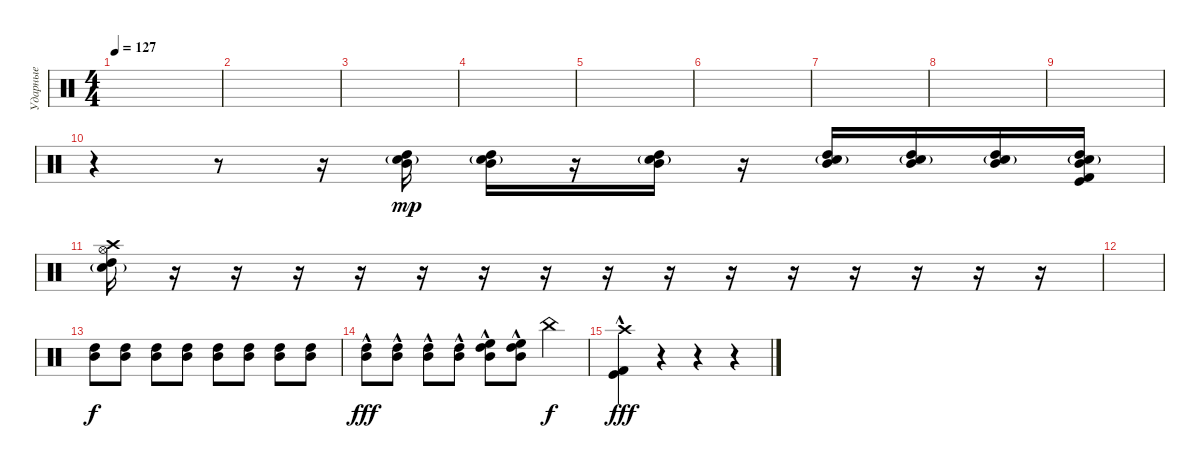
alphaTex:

\track ("Ударные" "Ударные") {instrument percussion}
\staff {score}
\articulation defaults
\ts (4 4)
\tempo 127
\clef neutral
\ks c
|
|
|
|
|
|
|
|
|
r.4 r.8 r.16 ("High Tom (hit)" "Snare (hit) 2"{g} "Mid Tom (hit)").16{dy mp} ("High Tom (hit)" "Snare (hit) 2"{g} "Mid Tom (hit)").16 r.16 ("High Tom (hit)" "Snare (hit) 2"{g} "Mid Tom (hit)").16 r.16 ("High Tom (hit)" "Snare (hit) 2"{g} "Mid Tom (hit)").16 ("High Tom (hit)" "Snare (hit) 2"{g} "Mid Tom (hit)").16 ("High Tom (hit)" "Snare (hit) 2"{g} "Mid Tom (hit)").16 ("High Tom (hit)" "Snare (hit) 2"{g} "Kick (hit) 2" "Kick (hit)" "Mid Tom (hit)").16 |
("High Tom (hit)" "Snare (hit) 2"{g} "Hi-Hat (open)" "Crash high (hit)").16 r.16 r.16 r.16 r.16 r.16 r.16 r.16 r.16 r.16 r.16 r.16 r.16 r.16 r.16 r.16 |
|
("Mid Tom (hit)" "High Tom (hit)").8{dy f} ("Mid Tom (hit)" "High Tom (hit)").8 ("Mid Tom (hit)" "High Tom (hit)").8 ("Mid Tom (hit)" "High Tom (hit)").8 ("Mid Tom (hit)" "High Tom (hit)").8 ("Mid Tom (hit)" "High Tom (hit)").8 ("Mid Tom (hit)" "High Tom (hit)").8 ("Mid Tom (hit)" "High Tom (hit)").8 |
("Mid Tom (hit)"{hac} "High Tom (hit)"{hac}).8{dy fff} ("Mid Tom (hit)"{hac} "High Tom (hit)"{hac}).8 ("Mid Tom (hit)"{hac} "High Tom (hit)"{hac}).8 ("Mid Tom (hit)"{hac} "High Tom (hit)"{hac}).8 ("Mid Tom (hit)"{hac} "High Tom (hit)"{hac} "High Floor Tom (hit)"{hac}).8 ("Mid Tom (hit)"{hac} "High Tom (hit)"{hac} "High Floor Tom (hit)"{hac}).8 "China (hit)".4{dy f} |
("Kick (hit) 2"{hac} "Kick (hit)"{hac} "Crash high (hit)"{hac}).4{dy fff} r.4 r.4 r.4
